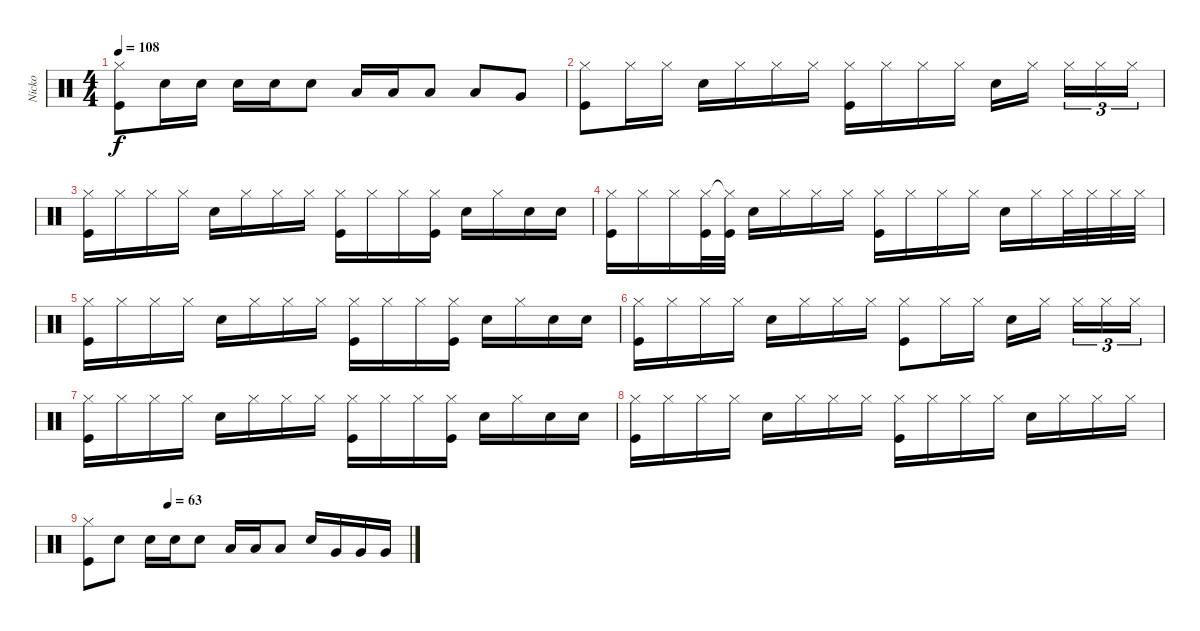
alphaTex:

\track ("Nicko" "Nicko") {instrument percussion}
\staff {score}
\articulation defaults
\ts (4 4)
\tempo 108
\clef neutral
\ks c
("Hi-Hat (closed)" "Kick (hit)").8{dy f} "Snare (hit) 2".16 "Snare (hit) 2".16 "Snare (hit) 2".16 "Snare (hit) 2".16 "Snare (hit) 2".8 "Low Tom (hit)".16 "Low Tom (hit)".16 "Low Tom (hit)".8 "Low Tom (hit)".8 "Very Low Tom (hit)".8 |
("Hi-Hat (closed)" "Kick (hit)").8 "Hi-Hat (closed)".16 "Hi-Hat (closed)".16 "Snare (hit) 2".16 "Hi-Hat (closed)".16 "Hi-Hat (closed)".16 "Hi-Hat (closed)".16 ("Hi-Hat (closed)" "Kick (hit)").16 "Hi-Hat (closed)".16 "Hi-Hat (closed)".16 "Hi-Hat (closed)".16 "Snare (hit) 2".16 "Hi-Hat (closed)".16{beam splitsecondary} "Hi-Hat (closed)".16{tu (3 2)} "Hi-Hat (closed)".16{tu (3 2)} "Hi-Hat (closed)".16{tu (3 2)} |
("Hi-Hat (closed)" "Kick (hit)").16 "Hi-Hat (closed)".16 "Hi-Hat (closed)".16 "Hi-Hat (closed)".16 "Snare (hit) 2".16 "Hi-Hat (closed)".16 "Hi-Hat (closed)".16 "Hi-Hat (closed)".16 ("Hi-Hat (closed)" "Kick (hit)").16 "Hi-Hat (closed)".16 "Hi-Hat (closed)".16 ("Hi-Hat (closed)" "Kick (hit)").16 "Snare (hit) 2".16 "Hi-Hat (closed)".16 "Snare (hit) 2".16 "Snare (hit) 2".16 |
("Hi-Hat (closed)" "Kick (hit)").16 "Hi-Hat (closed)".16 "Hi-Hat (closed)".16 ("Hi-Hat (closed)" "Kick (hit)").32 ("Hi-Hat (closed)"{t} "Kick (hit)").32 "Snare (hit) 2".16 "Hi-Hat (closed)".16 "Hi-Hat (closed)".16 "Hi-Hat (closed)".16 ("Hi-Hat (closed)" "Kick (hit)").16 "Hi-Hat (closed)".16 "Hi-Hat (closed)".16 "Hi-Hat (closed)".16 "Snare (hit) 2".16 "Hi-Hat (closed)".16 "Hi-Hat (closed)".32 "Hi-Hat (closed)".32 "Hi-Hat (closed)".32 "Hi-Hat (closed)".32 |
("Hi-Hat (closed)" "Kick (hit)").16 "Hi-Hat (closed)".16 "Hi-Hat (closed)".16 "Hi-Hat (closed)".16 "Snare (hit) 2".16 "Hi-Hat (closed)".16 "Hi-Hat (closed)".16 "Hi-Hat (closed)".16 ("Hi-Hat (closed)" "Kick (hit)").16 "Hi-Hat (closed)".16 "Hi-Hat (closed)".16 ("Hi-Hat (closed)" "Kick (hit)").16 "Snare (hit) 2".16 "Hi-Hat (closed)".16 "Snare (hit) 2".16 "Snare (hit) 2".16 |
("Hi-Hat (closed)" "Kick (hit)").16 "Hi-Hat (closed)".16 "Hi-Hat (closed)".16 "Hi-Hat (closed)".16 "Snare (hit) 2".16 "Hi-Hat (closed)".16 "Hi-Hat (closed)".16 "Hi-Hat (closed)".16 ("Hi-Hat (closed)" "Kick (hit)").8 "Hi-Hat (closed)".16 "Hi-Hat (closed)".16 "Snare (hit) 2".16 "Hi-Hat (closed)".16{beam splitsecondary} "Hi-Hat (closed)".16{tu (3 2)} "Hi-Hat (closed)".16{tu (3 2)} "Hi-Hat (closed)".16{tu (3 2)} |
("Hi-Hat (closed)" "Kick (hit)").16 "Hi-Hat (closed)".16 "Hi-Hat (closed)".16 "Hi-Hat (closed)".16 "Snare (hit) 2".16 "Hi-Hat (closed)".16 "Hi-Hat (closed)".16 "Hi-Hat (closed)".16 ("Hi-Hat (closed)" "Kick (hit)").16 "Hi-Hat (closed)".16 "Hi-Hat (closed)".16 ("Hi-Hat (closed)" "Kick (hit)").16 "Snare (hit) 2".16 "Hi-Hat (closed)".16 "Snare (hit) 2".16 "Snare (hit) 2".16 |
("Hi-Hat (closed)" "Kick (hit)").16 "Hi-Hat (closed)".16 "Hi-Hat (closed)".16 "Hi-Hat (closed)".16 "Snare (hit) 2".16 "Hi-Hat (closed)".16 "Hi-Hat (closed)".16 "Hi-Hat (closed)".16 ("Hi-Hat (closed)" "Kick (hit)").16 "Hi-Hat (closed)".16 "Hi-Hat (closed)".16 "Hi-Hat (closed)".16 "Snare (hit) 2".16 "Hi-Hat (closed)".16 "Hi-Hat (closed)".16 "Hi-Hat (closed)".16 |
\tempo (63 0.25)
("Hi-Hat (closed)" "Kick (hit)").8 "Snare (hit) 2".8 "Snare (hit) 2".16 "Snare (hit) 2".16 "Snare (hit) 2".8 "Low Tom (hit)".16 "Low Tom (hit)".16 "Low Tom (hit)".8 "Snare (hit) 2".16 "Very Low Tom (hit)".16 "Very Low Tom (hit)".16 "Very Low Tom (hit)".16
